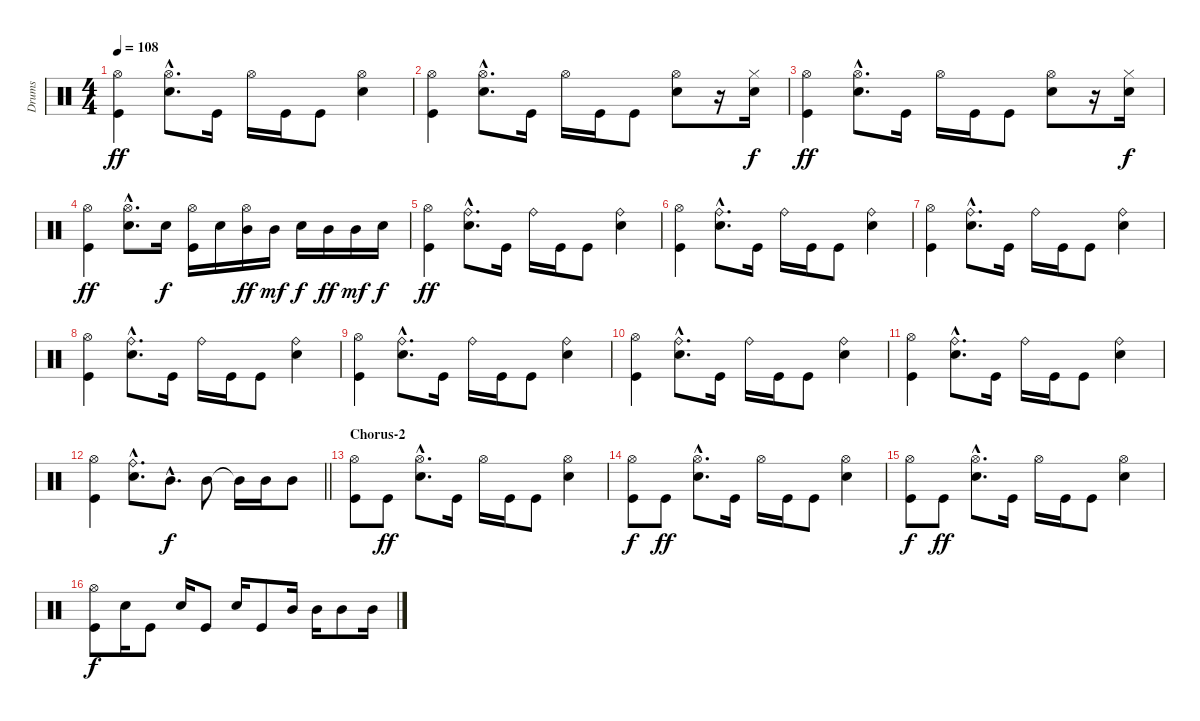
\track ("Drums" "Drums") {instrument percussion}
\staff {score}
\articulation defaults
\ts (4 4)
\tempo 108
\clef neutral
\ks c
("Hi-Hat (open)" "Kick (hit)").4{dy ff} ("Hi-Hat (open)"{hac} "Electric Snare (hit)"{hac}).8{d} "Kick (hit)".16 "Hi-Hat (open)".16 "Kick (hit)".16 "Kick (hit)".8 ("Hi-Hat (open)" "Electric Snare (hit)").4 |
("Hi-Hat (open)" "Kick (hit)").4 ("Hi-Hat (open)"{hac} "Electric Snare (hit)"{hac}).8{d} "Kick (hit)".16 "Hi-Hat (open)".16 "Kick (hit)".16 "Kick (hit)".8 ("Hi-Hat (open)" "Electric Snare (hit)").8 r.16 ("Hi-Hat (closed)" "Electric Snare (hit)").16{dy f} |
("Hi-Hat (open)" "Kick (hit)").4{dy ff} ("Hi-Hat (open)"{hac} "Electric Snare (hit)"{hac}).8{d} "Kick (hit)".16 "Hi-Hat (open)".16 "Kick (hit)".16 "Kick (hit)".8 ("Hi-Hat (open)" "Electric Snare (hit)").8 r.16 ("Hi-Hat (closed)" "Electric Snare (hit)").16{dy f} |
("Hi-Hat (open)" "Kick (hit)").4{dy ff} ("Hi-Hat (open)"{hac} "Electric Snare (hit)"{hac}).8{d} "Electric Snare (hit)".16{dy f} ("Hi-Hat (open)" "Kick (hit)").16 "Electric Snare (hit)".16 ("Hi-Hat (open)" "Mid Tom (hit)").16{dy ff} "Mid Tom (hit)".16{dy mf} "Electric Snare (hit)".16{dy f} "Mid Tom (hit)".16{dy ff} "Mid Tom (hit)".16{dy mf} "Electric Snare (hit)".16{dy f} |
("Hi-Hat (open)" "Kick (hit)").4{dy ff} ("Ride (bell)"{hac} "Electric Snare (hit)"{hac}).8{d} "Kick (hit)".16 "Ride (bell)".16 "Kick (hit)".16 "Kick (hit)".8 ("Ride (bell)" "Electric Snare (hit)").4 |
("Hi-Hat (open)" "Kick (hit)").4 ("Ride (bell)"{hac} "Electric Snare (hit)"{hac}).8{d} "Kick (hit)".16 "Ride (bell)".16 "Kick (hit)".16 "Kick (hit)".8 ("Ride (bell)" "Electric Snare (hit)").4 |
("Hi-Hat (open)" "Kick (hit)").4 ("Ride (bell)"{hac} "Electric Snare (hit)"{hac}).8{d} "Kick (hit)".16 "Ride (bell)".16 "Kick (hit)".16 "Kick (hit)".8 ("Ride (bell)" "Electric Snare (hit)").4 |
("Hi-Hat (open)" "Kick (hit)").4 ("Ride (bell)"{hac} "Electric Snare (hit)"{hac}).8{d} "Kick (hit)".16 "Ride (bell)".16 "Kick (hit)".16 "Kick (hit)".8 ("Ride (bell)" "Electric Snare (hit)").4 |
("Hi-Hat (open)" "Kick (hit)").4 ("Ride (bell)"{hac} "Electric Snare (hit)"{hac}).8{d} "Kick (hit)".16 "Ride (bell)".16 "Kick (hit)".16 "Kick (hit)".8 ("Ride (bell)" "Electric Snare (hit)").4 |
("Hi-Hat (open)" "Kick (hit)").4 ("Ride (bell)"{hac} "Electric Snare (hit)"{hac}).8{d} "Kick (hit)".16 "Ride (bell)".16 "Kick (hit)".16 "Kick (hit)".8 ("Ride (bell)" "Electric Snare (hit)").4 |
("Hi-Hat (open)" "Kick (hit)").4 ("Ride (bell)"{hac} "Electric Snare (hit)"{hac}).8{d} "Kick (hit)".16 "Ride (bell)".16 "Kick (hit)".16 "Kick (hit)".8 ("Ride (bell)" "Electric Snare (hit)").4 |
\barLineRight lightlight
("Hi-Hat (open)" "Kick (hit)").4 ("Ride (bell)"{hac} "Electric Snare (hit)"{hac}).8{d} "Mid Tom (hit)"{hac}.8{d dy f} "Mid Tom (hit)".8 "Mid Tom (hit)"{t}.16 "Mid Tom (hit)".16 "Mid Tom (hit)".8 |
\section ("" "Chorus-2")
("Hi-Hat (open)" "Kick (hit)").8 "Kick (hit)".8{dy ff} ("Hi-Hat (open)"{hac} "Electric Snare (hit)"{hac}).8{d} "Kick (hit)".16 "Hi-Hat (open)".16 "Kick (hit)".16 "Kick (hit)".8 ("Hi-Hat (open)" "Electric Snare (hit)").4 |
("Hi-Hat (open)" "Kick (hit)").8{dy f} "Kick (hit)".8{dy ff} ("Hi-Hat (open)"{hac} "Electric Snare (hit)"{hac}).8{d} "Kick (hit)".16 "Hi-Hat (open)".16 "Kick (hit)".16 "Kick (hit)".8 ("Hi-Hat (open)" "Electric Snare (hit)").4 |
("Hi-Hat (open)" "Kick (hit)").8{dy f} "Kick (hit)".8{dy ff} ("Hi-Hat (open)"{hac} "Electric Snare (hit)"{hac}).8{d} "Kick (hit)".16 "Hi-Hat (open)".16 "Kick (hit)".16 "Kick (hit)".8 ("Hi-Hat (open)" "Electric Snare (hit)").4 |
("Hi-Hat (open)" "Kick (hit)").8{dy f} "Electric Snare (hit)".16 "Kick (hit)".8 "Electric Snare (hit)".16 "Kick (hit)".8 "Electric Snare (hit)".16 "Kick (hit)".8 "Mid Tom (hit)".16 "Mid Tom (hit)".16 "Mid Tom (hit)".8 "Mid Tom (hit)".16
